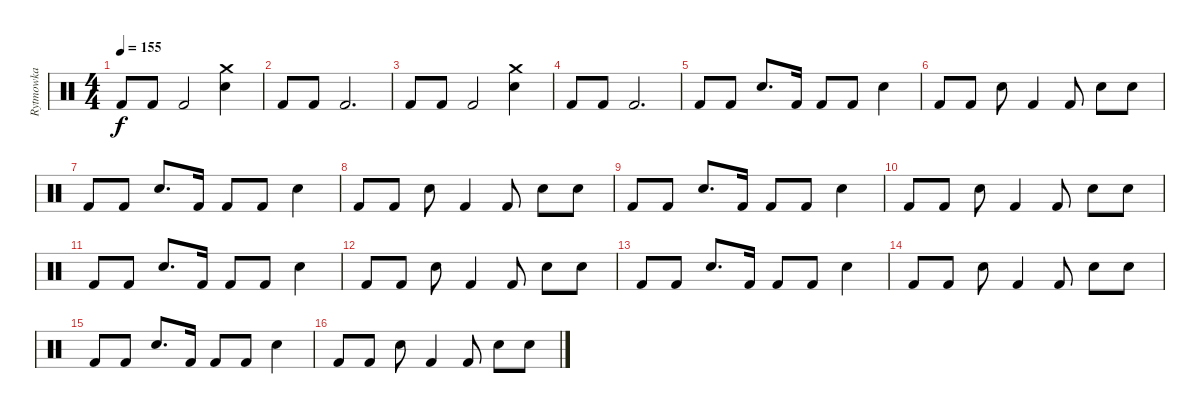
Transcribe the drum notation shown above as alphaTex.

\track ("Rytmowka" "Rytmowka") {instrument percussion}
\staff {score}
\articulation defaults
\ts (4 4)
\tempo 155
\clef neutral
\ks c "Kick (hit) 2".8{dy f} "Kick (hit) 2".8 "Kick (hit) 2".2
("Crash medium (hit)" "Snare (hit) 2").4 |
"Kick (hit) 2".8 "Kick (hit) 2".8 "Kick (hit) 2".2{d} |
"Kick (hit) 2".8 "Kick (hit) 2".8 "Kick (hit) 2".2 ("Crash medium (hit)" "Snare (hit) 2").4 |
"Kick (hit) 2".8 "Kick (hit) 2".8 "Kick (hit) 2".2{d} |
"Kick (hit) 2".8 "Kick (hit) 2".8 "Snare (hit) 2".8{d} "Kick (hit) 2".16 "Kick (hit) 2".8 "Kick (hit) 2".8 "Snare (hit) 2".4 |
"Kick (hit) 2".8 "Kick (hit) 2".8 "Snare (hit) 2".8 "Kick (hit) 2".4 "Kick (hit) 2".8 "Snare (hit) 2".8 "Snare (hit) 2".8 |
"Kick (hit) 2".8 "Kick (hit) 2".8 "Snare (hit) 2".8{d} "Kick (hit) 2".16 "Kick (hit) 2".8 "Kick (hit) 2".8 "Snare (hit) 2".4 |
"Kick (hit) 2".8 "Kick (hit) 2".8 "Snare (hit) 2".8 "Kick (hit) 2".4 "Kick (hit) 2".8 "Snare (hit) 2".8 "Snare (hit) 2".8 |
"Kick (hit) 2".8 "Kick (hit) 2".8 "Snare (hit) 2".8{d} "Kick (hit) 2".16 "Kick (hit) 2".8 "Kick (hit) 2".8 "Snare (hit) 2".4 |
"Kick (hit) 2".8 "Kick (hit) 2".8 "Snare (hit) 2".8 "Kick (hit) 2".4 "Kick (hit) 2".8 "Snare (hit) 2".8 "Snare (hit) 2".8 |
"Kick (hit) 2".8 "Kick (hit) 2".8 "Snare (hit) 2".8{d} "Kick (hit) 2".16 "Kick (hit) 2".8 "Kick (hit) 2".8 "Snare (hit) 2".4 |
"Kick (hit) 2".8 "Kick (hit) 2".8 "Snare (hit) 2".8 "Kick (hit) 2".4 "Kick (hit) 2".8 "Snare (hit) 2".8 "Snare (hit) 2".8 |
"Kick (hit) 2".8 "Kick (hit) 2".8 "Snare (hit) 2".8{d} "Kick (hit) 2".16 "Kick (hit) 2".8 "Kick (hit) 2".8 "Snare (hit) 2".4 |
"Kick (hit) 2".8 "Kick (hit) 2".8 "Snare (hit) 2".8 "Kick (hit) 2".4 "Kick (hit) 2".8 "Snare (hit) 2".8 "Snare (hit) 2".8 |
"Kick (hit) 2".8 "Kick (hit) 2".8 "Snare (hit) 2".8{d} "Kick (hit) 2".16 "Kick (hit) 2".8 "Kick (hit) 2".8 "Snare (hit) 2".4 |
"Kick (hit) 2".8 "Kick (hit) 2".8 "Snare (hit) 2".8 "Kick (hit) 2".4 "Kick (hit) 2".8 "Snare (hit) 2".8 "Snare (hit) 2".8
